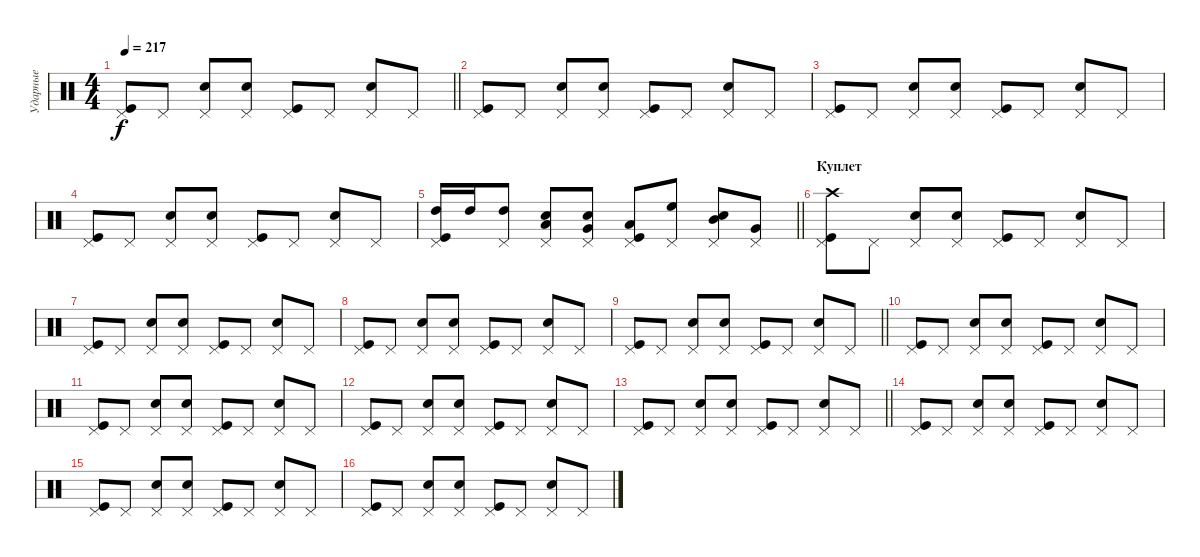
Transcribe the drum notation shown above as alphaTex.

\track ("Ударные" "Ударные") {instrument percussion}
\staff {score}
\articulation defaults
\ts (4 4)
\tempo 217
\clef neutral
\barLineRight lightlight
\ks c
("Pedal Hi-Hat (hit)" "Kick (hit)").8{dy f} "Pedal Hi-Hat (hit)".8 ("Pedal Hi-Hat (hit)" "Snare (hit) 2").8 ("Pedal Hi-Hat (hit)" "Snare (hit) 2").8 ("Pedal Hi-Hat (hit)" "Kick (hit)").8 "Pedal Hi-Hat (hit)".8 ("Pedal Hi-Hat (hit)" "Snare (hit) 2").8 "Pedal Hi-Hat (hit)".8 |
("Pedal Hi-Hat (hit)" "Kick (hit)").8 "Pedal Hi-Hat (hit)".8 ("Pedal Hi-Hat (hit)" "Snare (hit) 2").8 ("Pedal Hi-Hat (hit)" "Snare (hit) 2").8 ("Pedal Hi-Hat (hit)" "Kick (hit)").8 "Pedal Hi-Hat (hit)".8 ("Pedal Hi-Hat (hit)" "Snare (hit) 2").8 "Pedal Hi-Hat (hit)".8 |
("Pedal Hi-Hat (hit)" "Kick (hit)").8 "Pedal Hi-Hat (hit)".8 ("Pedal Hi-Hat (hit)" "Snare (hit) 2").8 ("Pedal Hi-Hat (hit)" "Snare (hit) 2").8 ("Pedal Hi-Hat (hit)" "Kick (hit)").8 "Pedal Hi-Hat (hit)".8 ("Pedal Hi-Hat (hit)" "Snare (hit) 2").8 "Pedal Hi-Hat (hit)".8 |
("Pedal Hi-Hat (hit)" "Kick (hit)").8 "Pedal Hi-Hat (hit)".8 ("Pedal Hi-Hat (hit)" "Snare (hit) 2").8 ("Pedal Hi-Hat (hit)" "Snare (hit) 2").8 ("Pedal Hi-Hat (hit)" "Kick (hit)").8 "Pedal Hi-Hat (hit)".8 ("Pedal Hi-Hat (hit)" "Snare (hit) 2").8 "Pedal Hi-Hat (hit)".8 |
\barLineRight lightlight
("Pedal Hi-Hat (hit)" "Kick (hit)" "High Tom (hit)").16 "High Tom (hit)".16 ("Pedal Hi-Hat (hit)" "High Tom (hit)").8 ("Pedal Hi-Hat (hit)" "Snare (hit) 2" "Low Tom (hit)").8 ("Pedal Hi-Hat (hit)" "Snare (hit) 2" "Very Low Tom (hit)").8 ("Pedal Hi-Hat (hit)" "Kick (hit)" "Low Tom (hit)").8 ("Pedal Hi-Hat (hit)" "High Floor Tom (hit)").8 ("Pedal Hi-Hat (hit)" "Snare (hit) 2" "Mid Tom (hit)").8 ("Pedal Hi-Hat (hit)" "Very Low Tom (hit)").8 |
\section ("" "Куплет")
("Pedal Hi-Hat (hit)" "Kick (hit)" "Crash high (hit)").8 "Pedal Hi-Hat (hit)".8 ("Pedal Hi-Hat (hit)" "Snare (hit) 2").8 ("Pedal Hi-Hat (hit)" "Snare (hit) 2").8 ("Pedal Hi-Hat (hit)" "Kick (hit)").8 "Pedal Hi-Hat (hit)".8 ("Pedal Hi-Hat (hit)" "Snare (hit) 2").8 "Pedal Hi-Hat (hit)".8 |
("Pedal Hi-Hat (hit)" "Kick (hit)").8 "Pedal Hi-Hat (hit)".8 ("Pedal Hi-Hat (hit)" "Snare (hit) 2").8 ("Pedal Hi-Hat (hit)" "Snare (hit) 2").8 ("Pedal Hi-Hat (hit)" "Kick (hit)").8 "Pedal Hi-Hat (hit)".8 ("Pedal Hi-Hat (hit)" "Snare (hit) 2").8 "Pedal Hi-Hat (hit)".8 |
("Pedal Hi-Hat (hit)" "Kick (hit)").8 "Pedal Hi-Hat (hit)".8 ("Pedal Hi-Hat (hit)" "Snare (hit) 2").8 ("Pedal Hi-Hat (hit)" "Snare (hit) 2").8 ("Pedal Hi-Hat (hit)" "Kick (hit)").8 "Pedal Hi-Hat (hit)".8 ("Pedal Hi-Hat (hit)" "Snare (hit) 2").8 "Pedal Hi-Hat (hit)".8 |
\barLineRight lightlight
("Pedal Hi-Hat (hit)" "Kick (hit)").8 "Pedal Hi-Hat (hit)".8 ("Pedal Hi-Hat (hit)" "Snare (hit) 2").8 ("Pedal Hi-Hat (hit)" "Snare (hit) 2").8 ("Pedal Hi-Hat (hit)" "Kick (hit)").8 "Pedal Hi-Hat (hit)".8 ("Pedal Hi-Hat (hit)" "Snare (hit) 2").8 "Pedal Hi-Hat (hit)".8 |
("Pedal Hi-Hat (hit)" "Kick (hit)").8 "Pedal Hi-Hat (hit)".8 ("Pedal Hi-Hat (hit)" "Snare (hit) 2").8 ("Pedal Hi-Hat (hit)" "Snare (hit) 2").8 ("Pedal Hi-Hat (hit)" "Kick (hit)").8 "Pedal Hi-Hat (hit)".8 ("Pedal Hi-Hat (hit)" "Snare (hit) 2").8 "Pedal Hi-Hat (hit)".8 |
("Pedal Hi-Hat (hit)" "Kick (hit)").8 "Pedal Hi-Hat (hit)".8 ("Pedal Hi-Hat (hit)" "Snare (hit) 2").8 ("Pedal Hi-Hat (hit)" "Snare (hit) 2").8 ("Pedal Hi-Hat (hit)" "Kick (hit)").8 "Pedal Hi-Hat (hit)".8 ("Pedal Hi-Hat (hit)" "Snare (hit) 2").8 "Pedal Hi-Hat (hit)".8 |
("Pedal Hi-Hat (hit)" "Kick (hit)").8 "Pedal Hi-Hat (hit)".8 ("Pedal Hi-Hat (hit)" "Snare (hit) 2").8 ("Pedal Hi-Hat (hit)" "Snare (hit) 2").8 ("Pedal Hi-Hat (hit)" "Kick (hit)").8 "Pedal Hi-Hat (hit)".8 ("Pedal Hi-Hat (hit)" "Snare (hit) 2").8 "Pedal Hi-Hat (hit)".8 |
\barLineRight lightlight
("Pedal Hi-Hat (hit)" "Kick (hit)").8 "Pedal Hi-Hat (hit)".8 ("Pedal Hi-Hat (hit)" "Snare (hit) 2").8 ("Pedal Hi-Hat (hit)" "Snare (hit) 2").8 ("Pedal Hi-Hat (hit)" "Kick (hit)").8 "Pedal Hi-Hat (hit)".8 ("Pedal Hi-Hat (hit)" "Snare (hit) 2").8 "Pedal Hi-Hat (hit)".8 |
("Pedal Hi-Hat (hit)" "Kick (hit)").8 "Pedal Hi-Hat (hit)".8 ("Pedal Hi-Hat (hit)" "Snare (hit) 2").8 ("Pedal Hi-Hat (hit)" "Snare (hit) 2").8 ("Pedal Hi-Hat (hit)" "Kick (hit)").8 "Pedal Hi-Hat (hit)".8 ("Pedal Hi-Hat (hit)" "Snare (hit) 2").8 "Pedal Hi-Hat (hit)".8 |
("Pedal Hi-Hat (hit)" "Kick (hit)").8 "Pedal Hi-Hat (hit)".8 ("Pedal Hi-Hat (hit)" "Snare (hit) 2").8 ("Pedal Hi-Hat (hit)" "Snare (hit) 2").8 ("Pedal Hi-Hat (hit)" "Kick (hit)").8 "Pedal Hi-Hat (hit)".8 ("Pedal Hi-Hat (hit)" "Snare (hit) 2").8 "Pedal Hi-Hat (hit)".8 |
("Pedal Hi-Hat (hit)" "Kick (hit)").8 "Pedal Hi-Hat (hit)".8 ("Pedal Hi-Hat (hit)" "Snare (hit) 2").8 ("Pedal Hi-Hat (hit)" "Snare (hit) 2").8 ("Pedal Hi-Hat (hit)" "Kick (hit)").8 "Pedal Hi-Hat (hit)".8 ("Pedal Hi-Hat (hit)" "Snare (hit) 2").8 "Pedal Hi-Hat (hit)".8
